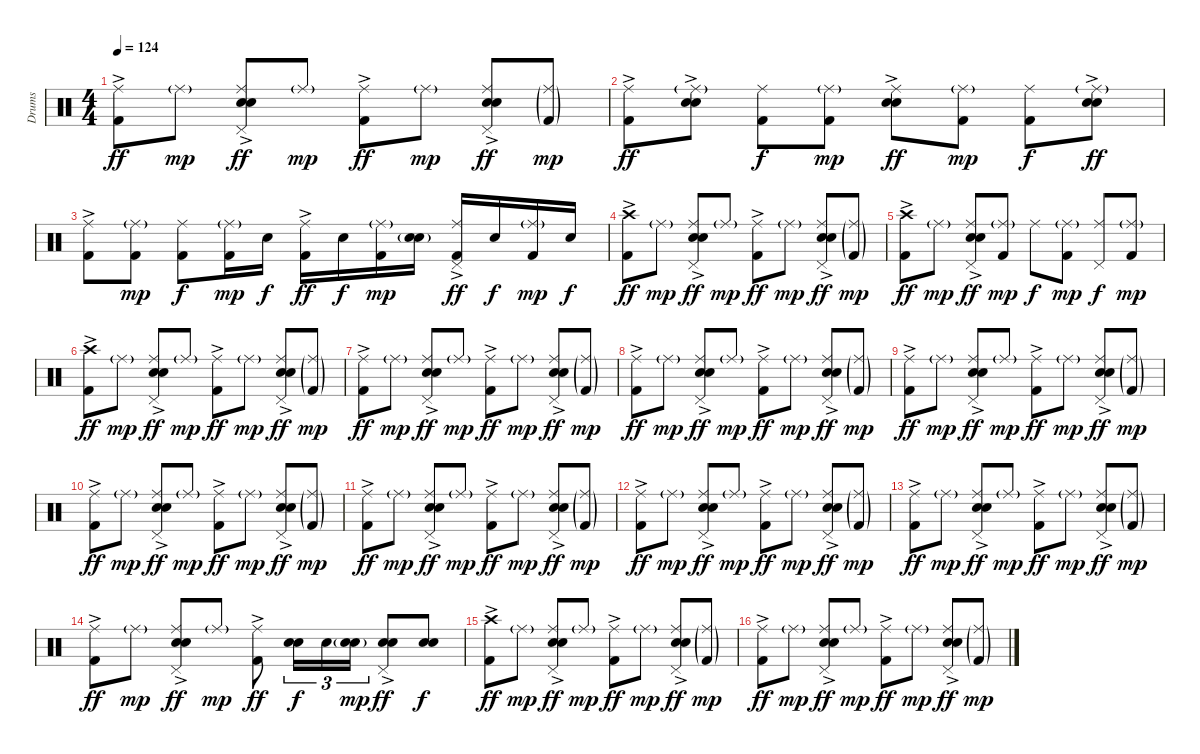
\track ("Drums" "Drums") {instrument percussion}
\staff {score}
\articulation defaults
\ts (4 4)
\tempo 124
\clef neutral
\ks c
("Ride (middle)" "Kick (hit) 2"{ac}).8{dy ff} "Ride (middle)"{g}.8{dy mp} ("Ride (middle)" "Electric Snare (hit)"{ac} "Snare (hit) 2" "Pedal Hi-Hat (hit)").8{dy ff} "Ride (middle)"{g}.8{dy mp} ("Ride (middle)" "Kick (hit) 2"{ac}).8{dy ff} "Ride (middle)"{g}.8{dy mp} ("Ride (middle)" "Electric Snare (hit)"{ac} "Snare (hit) 2" "Pedal Hi-Hat (hit)").8{dy ff} ("Ride (middle)"{g} "Kick (hit) 2"{g}).8{dy mp} |
("Ride (middle)" "Kick (hit) 2"{ac}).8{dy ff} ("Ride (middle)"{g} "Electric Snare (hit)"{ac} "Snare (hit) 2").8 ("Ride (middle)" "Kick (hit) 2").8{dy f} ("Ride (middle)"{g} "Kick (hit) 2").8{dy mp} ("Ride (middle)" "Electric Snare (hit)"{ac} "Snare (hit) 2").8{dy ff} ("Ride (middle)"{g} "Kick (hit) 2").8{dy mp} ("Ride (middle)" "Kick (hit) 2").8{dy f} ("Ride (middle)"{g} "Electric Snare (hit)"{ac} "Snare (hit) 2").8{dy ff} |
("Ride (middle)" "Kick (hit) 2"{ac}).8 ("Ride (middle)"{g} "Kick (hit) 2").8{dy mp} ("Ride (middle)" "Kick (hit) 2").8{dy f} ("Ride (middle)"{g} "Kick (hit) 2").16{dy mp} "Snare (hit) 2".16{dy f} ("Ride (middle)" "Kick (hit) 2"{ac}).16{dy ff} "Snare (hit) 2".16{dy f} ("Ride (middle)"{g} "Kick (hit) 2").16{dy mp} ("Electric Snare (hit)"{g} "Snare (hit) 2").16 ("Ride (middle)" "Pedal Hi-Hat (hit)" "Kick (hit) 2"{ac}).16{dy ff} "Snare (hit) 2".16{dy f} ("Ride (middle)"{g} "Kick (hit) 2").16{dy mp} "Snare (hit) 2".16{dy f} |
("Crash high (hit)" "Kick (hit) 2"{ac}).8{dy ff} "Ride (middle)"{g}.8{dy mp} ("Ride (middle)" "Electric Snare (hit)"{ac} "Snare (hit) 2" "Pedal Hi-Hat (hit)").8{dy ff} "Ride (middle)"{g}.8{dy mp} ("Ride (middle)" "Kick (hit) 2"{ac}).8{dy ff} "Ride (middle)"{g}.8{dy mp} ("Ride (middle)" "Electric Snare (hit)"{ac} "Snare (hit) 2" "Pedal Hi-Hat (hit)").8{dy ff} ("Ride (middle)"{g} "Kick (hit) 2"{g}).8{dy mp} |
("Crash high (hit)" "Kick (hit) 2"{ac}).8{dy ff} "Ride (middle)"{g}.8{dy mp} ("Ride (middle)" "Electric Snare (hit)"{ac} "Snare (hit) 2" "Pedal Hi-Hat (hit)").8{dy ff} ("Ride (middle)"{g} "Kick (hit) 2").8{dy mp} "Ride (middle)".8{dy f} ("Ride (middle)"{g} "Kick (hit) 2").8{dy mp} ("Ride (middle)" "Pedal Hi-Hat (hit)").8{dy f} ("Ride (middle)"{g} "Kick (hit) 2").8{dy mp} |
("Crash high (hit)" "Kick (hit) 2"{ac}).8{dy ff} "Ride (middle)"{g}.8{dy mp} ("Ride (middle)" "Electric Snare (hit)"{ac} "Snare (hit) 2" "Pedal Hi-Hat (hit)").8{dy ff} "Ride (middle)"{g}.8{dy mp} ("Ride (middle)" "Kick (hit) 2"{ac}).8{dy ff} "Ride (middle)"{g}.8{dy mp} ("Ride (middle)" "Electric Snare (hit)"{ac} "Snare (hit) 2" "Pedal Hi-Hat (hit)").8{dy ff} ("Ride (middle)"{g} "Kick (hit) 2"{g}).8{dy mp} |
("Ride (middle)" "Kick (hit) 2"{ac}).8{dy ff} "Ride (middle)"{g}.8{dy mp} ("Ride (middle)" "Electric Snare (hit)"{ac} "Snare (hit) 2" "Pedal Hi-Hat (hit)").8{dy ff} "Ride (middle)"{g}.8{dy mp} ("Ride (middle)" "Kick (hit) 2"{ac}).8{dy ff} "Ride (middle)"{g}.8{dy mp} ("Ride (middle)" "Electric Snare (hit)"{ac} "Snare (hit) 2" "Pedal Hi-Hat (hit)").8{dy ff} ("Ride (middle)"{g} "Kick (hit) 2"{g}).8{dy mp} |
("Ride (middle)" "Kick (hit) 2"{ac}).8{dy ff} "Ride (middle)"{g}.8{dy mp} ("Ride (middle)" "Electric Snare (hit)"{ac} "Snare (hit) 2" "Pedal Hi-Hat (hit)").8{dy ff} "Ride (middle)"{g}.8{dy mp} ("Ride (middle)" "Kick (hit) 2"{ac}).8{dy ff} "Ride (middle)"{g}.8{dy mp} ("Ride (middle)" "Electric Snare (hit)"{ac} "Snare (hit) 2" "Pedal Hi-Hat (hit)").8{dy ff} ("Ride (middle)"{g} "Kick (hit) 2"{g}).8{dy mp} |
("Ride (middle)" "Kick (hit) 2"{ac}).8{dy ff} "Ride (middle)"{g}.8{dy mp} ("Ride (middle)" "Electric Snare (hit)"{ac} "Snare (hit) 2" "Pedal Hi-Hat (hit)").8{dy ff} "Ride (middle)"{g}.8{dy mp} ("Ride (middle)" "Kick (hit) 2"{ac}).8{dy ff} "Ride (middle)"{g}.8{dy mp} ("Ride (middle)" "Electric Snare (hit)"{ac} "Snare (hit) 2" "Pedal Hi-Hat (hit)").8{dy ff} ("Ride (middle)"{g} "Kick (hit) 2"{g}).8{dy mp} |
("Ride (middle)" "Kick (hit) 2"{ac}).8{dy ff} "Ride (middle)"{g}.8{dy mp} ("Ride (middle)" "Electric Snare (hit)"{ac} "Snare (hit) 2" "Pedal Hi-Hat (hit)").8{dy ff} "Ride (middle)"{g}.8{dy mp} ("Ride (middle)" "Kick (hit) 2"{ac}).8{dy ff} "Ride (middle)"{g}.8{dy mp} ("Ride (middle)" "Electric Snare (hit)"{ac} "Snare (hit) 2" "Pedal Hi-Hat (hit)").8{dy ff} ("Ride (middle)"{g} "Kick (hit) 2"{g}).8{dy mp} |
("Ride (middle)" "Kick (hit) 2"{ac}).8{dy ff} "Ride (middle)"{g}.8{dy mp} ("Ride (middle)" "Electric Snare (hit)"{ac} "Snare (hit) 2" "Pedal Hi-Hat (hit)").8{dy ff} "Ride (middle)"{g}.8{dy mp} ("Ride (middle)" "Kick (hit) 2"{ac}).8{dy ff} "Ride (middle)"{g}.8{dy mp} ("Ride (middle)" "Electric Snare (hit)"{ac} "Snare (hit) 2" "Pedal Hi-Hat (hit)").8{dy ff} ("Ride (middle)"{g} "Kick (hit) 2"{g}).8{dy mp} |
("Ride (middle)" "Kick (hit) 2"{ac}).8{dy ff} "Ride (middle)"{g}.8{dy mp} ("Ride (middle)" "Electric Snare (hit)"{ac} "Snare (hit) 2" "Pedal Hi-Hat (hit)").8{dy ff} "Ride (middle)"{g}.8{dy mp} ("Ride (middle)" "Kick (hit) 2"{ac}).8{dy ff} "Ride (middle)"{g}.8{dy mp} ("Ride (middle)" "Electric Snare (hit)"{ac} "Snare (hit) 2" "Pedal Hi-Hat (hit)").8{dy ff} ("Ride (middle)"{g} "Kick (hit) 2"{g}).8{dy mp} |
("Ride (middle)" "Kick (hit) 2"{ac}).8{dy ff} "Ride (middle)"{g}.8{dy mp} ("Ride (middle)" "Electric Snare (hit)"{ac} "Snare (hit) 2" "Pedal Hi-Hat (hit)").8{dy ff} "Ride (middle)"{g}.8{dy mp} ("Ride (middle)" "Kick (hit) 2"{ac}).8{dy ff} "Ride (middle)"{g}.8{dy mp} ("Ride (middle)" "Electric Snare (hit)"{ac} "Snare (hit) 2" "Pedal Hi-Hat (hit)").8{dy ff} ("Ride (middle)"{g} "Kick (hit) 2"{g}).8{dy mp} |
("Ride (middle)" "Kick (hit) 2"{ac}).8{dy ff} "Ride (middle)"{g}.8{dy mp} ("Ride (middle)" "Electric Snare (hit)"{ac} "Snare (hit) 2" "Pedal Hi-Hat (hit)").8{dy ff} "Ride (middle)"{g}.8{dy mp} ("Ride (middle)" "Kick (hit) 2"{ac}).8{dy ff} ("Electric Snare (hit)" "Snare (hit) 2").16{tu (3 2) dy f} "Snare (hit) 2".16{tu (3 2)} ("Electric Snare (hit)"{g} "Snare (hit) 2").16{tu (3 2) dy mp} ("Electric Snare (hit)"{ac} "Snare (hit) 2" "Pedal Hi-Hat (hit)").8{dy ff} ("Electric Snare (hit)" "Snare (hit) 2").8{dy f} |
("Crash high (hit)" "Kick (hit) 2"{ac}).8{dy ff} "Ride (middle)"{g}.8{dy mp} ("Ride (middle)" "Electric Snare (hit)"{ac} "Snare (hit) 2" "Pedal Hi-Hat (hit)").8{dy ff} "Ride (middle)"{g}.8{dy mp} ("Ride (middle)" "Kick (hit) 2"{ac}).8{dy ff} "Ride (middle)"{g}.8{dy mp} ("Ride (middle)" "Electric Snare (hit)"{ac} "Snare (hit) 2" "Pedal Hi-Hat (hit)").8{dy ff} ("Ride (middle)"{g} "Kick (hit) 2"{g}).8{dy mp} |
("Ride (middle)" "Kick (hit) 2"{ac}).8{dy ff} "Ride (middle)"{g}.8{dy mp} ("Ride (middle)" "Electric Snare (hit)"{ac} "Snare (hit) 2" "Pedal Hi-Hat (hit)").8{dy ff} "Ride (middle)"{g}.8{dy mp} ("Ride (middle)" "Kick (hit) 2"{ac}).8{dy ff} "Ride (middle)"{g}.8{dy mp} ("Ride (middle)" "Electric Snare (hit)"{ac} "Snare (hit) 2" "Pedal Hi-Hat (hit)").8{dy ff} ("Ride (middle)"{g} "Kick (hit) 2"{g}).8{dy mp}
